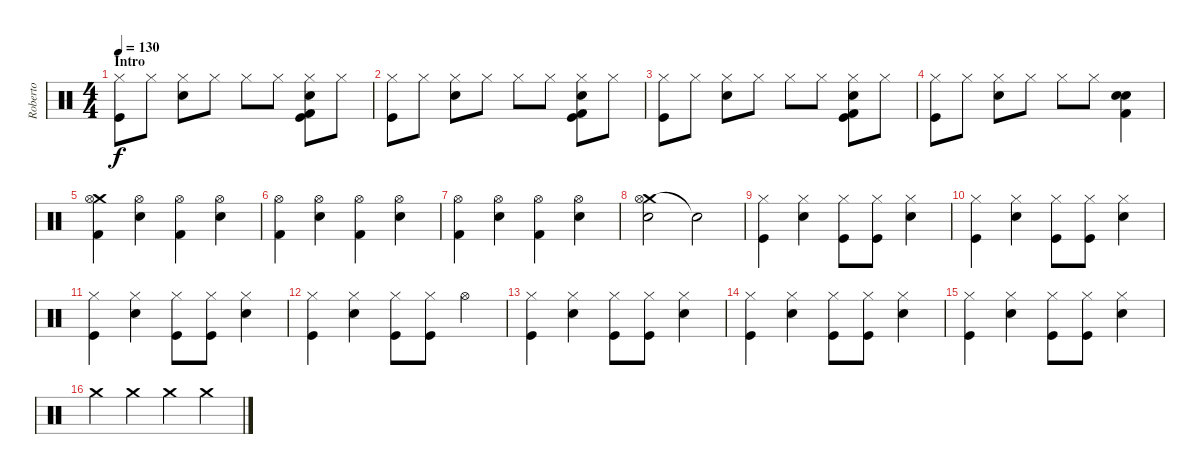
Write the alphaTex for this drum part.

\track ("Roberto" "Roberto") {instrument percussion}
\staff {score}
\articulation defaults
\ts (4 4)
\section ("" "Intro")
\tempo 130
\clef neutral
\ks c
("Hi-Hat (closed)" "Kick (hit)").8{dy f} "Hi-Hat (closed)".8 ("Hi-Hat (closed)" "Electric Snare (hit)").8 "Hi-Hat (closed)".8 "Hi-Hat (closed)".8 "Hi-Hat (closed)".8 ("Hi-Hat (closed)" "Electric Snare (hit)" "Kick (hit)" "Kick (hit) 2").8 "Hi-Hat (closed)".8 |
("Hi-Hat (closed)" "Kick (hit)").8 "Hi-Hat (closed)".8 ("Hi-Hat (closed)" "Electric Snare (hit)").8 "Hi-Hat (closed)".8 "Hi-Hat (closed)".8 "Hi-Hat (closed)".8 ("Hi-Hat (closed)" "Electric Snare (hit)" "Kick (hit)" "Kick (hit) 2").8 "Hi-Hat (closed)".8 |
("Hi-Hat (closed)" "Kick (hit)").8 "Hi-Hat (closed)".8 ("Hi-Hat (closed)" "Electric Snare (hit)").8 "Hi-Hat (closed)".8 "Hi-Hat (closed)".8 "Hi-Hat (closed)".8 ("Hi-Hat (closed)" "Electric Snare (hit)" "Kick (hit)" "Kick (hit) 2").8 "Hi-Hat (closed)".8 |
("Hi-Hat (closed)" "Kick (hit)").8 "Hi-Hat (closed)".8 ("Hi-Hat (closed)" "Electric Snare (hit)").8 "Hi-Hat (closed)".8 "Hi-Hat (closed)".8 "Hi-Hat (closed)".8 ("Snare (hit) 2" "Electric Snare (hit)" "Kick (hit) 2").4 |
("Crash medium (hit)" "Hi-Hat (open)" "Kick (hit) 2").4 ("Hi-Hat (open)" "Snare (hit) 2").4 ("Hi-Hat (open)" "Kick (hit) 2").4 ("Hi-Hat (open)" "Snare (hit) 2").4 |
("Hi-Hat (open)" "Kick (hit) 2").4 ("Hi-Hat (open)" "Snare (hit) 2").4 ("Hi-Hat (open)" "Kick (hit) 2").4 ("Hi-Hat (open)" "Snare (hit) 2").4 |
("Hi-Hat (open)" "Kick (hit) 2").4 ("Hi-Hat (open)" "Snare (hit) 2").4 ("Hi-Hat (open)" "Kick (hit) 2").4 ("Hi-Hat (open)" "Snare (hit) 2").4 |
("Crash medium (hit)" "Hi-Hat (open)" "Snare (hit) 2").2 "Snare (hit)"{t}.2 |
("Hi-Hat (closed)" "Kick (hit)").4 ("Hi-Hat (closed)" "Snare (hit) 2").4 ("Hi-Hat (closed)" "Kick (hit)").8 ("Hi-Hat (closed)" "Kick (hit)").8 ("Hi-Hat (closed)" "Snare (hit) 2").4 |
("Hi-Hat (closed)" "Kick (hit)").4 ("Hi-Hat (closed)" "Snare (hit) 2").4 ("Hi-Hat (closed)" "Kick (hit)").8 ("Hi-Hat (closed)" "Kick (hit)").8 ("Hi-Hat (closed)" "Snare (hit) 2").4 |
("Hi-Hat (closed)" "Kick (hit)").4 ("Hi-Hat (closed)" "Snare (hit) 2").4 ("Hi-Hat (closed)" "Kick (hit)").8 ("Hi-Hat (closed)" "Kick (hit)").8 ("Hi-Hat (closed)" "Snare (hit) 2").4 |
("Hi-Hat (closed)" "Kick (hit)").4 ("Hi-Hat (closed)" "Snare (hit) 2").4 ("Hi-Hat (closed)" "Kick (hit)").8 ("Hi-Hat (closed)" "Kick (hit)").8 "Hi-Hat (open)".4 |
("Hi-Hat (closed)" "Kick (hit)").4 ("Hi-Hat (closed)" "Snare (hit) 2").4 ("Hi-Hat (closed)" "Kick (hit)").8 ("Hi-Hat (closed)" "Kick (hit)").8 ("Hi-Hat (closed)" "Snare (hit) 2").4 |
("Hi-Hat (closed)" "Kick (hit)").4 ("Hi-Hat (closed)" "Snare (hit) 2").4 ("Hi-Hat (closed)" "Kick (hit)").8 ("Hi-Hat (closed)" "Kick (hit)").8 ("Hi-Hat (closed)" "Snare (hit) 2").4 |
("Hi-Hat (closed)" "Kick (hit)").4 ("Hi-Hat (closed)" "Snare (hit) 2").4 ("Hi-Hat (closed)" "Kick (hit)").8 ("Hi-Hat (closed)" "Kick (hit)").8 ("Hi-Hat (closed)" "Snare (hit) 2").4 |
"Crash medium (hit)".4 "Crash medium (hit)".4 "Crash medium (hit)".4 "Crash medium (hit)".4
